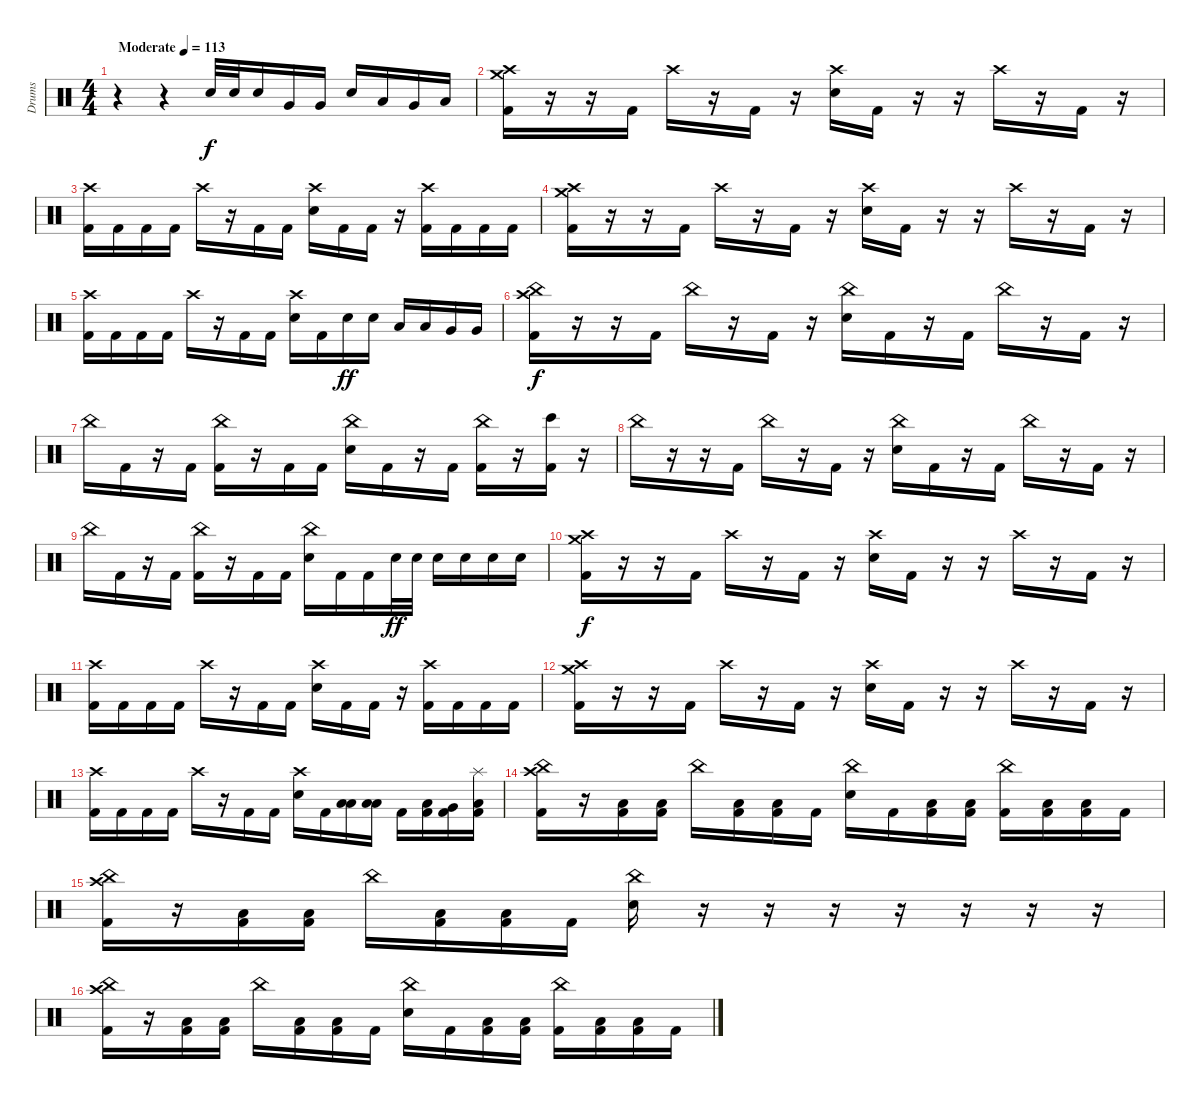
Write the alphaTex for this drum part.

\track ("Drums" "Drums") {instrument percussion}
\staff {score}
\articulation defaults
\ts (4 4)
\tempo (113 "Moderate")
\clef neutral
\ks c
r.4{dy f} r.4 "Snare (hit) 2".32 "Snare (hit) 2".32 "Snare (hit) 2".16 "Very Low Tom (hit)".16 "Very Low Tom (hit)".16 "Snare (hit) 2".16 "Low Tom (hit)".16 "Very Low Tom (hit)".16 "Low Floor Tom (hit)".16 |
("Crash high (hit)" "Crash medium (hit)" "Kick (hit) 2").16 r.16 r.16 "Kick (hit) 2".16 "Crash high (hit)".16 r.16 "Kick (hit) 2".16 r.16 ("Crash high (hit)" "Snare (hit) 2").16 "Kick (hit) 2".16 r.16 r.16 "Crash high (hit)".16 r.16 "Kick (hit) 2".16 r.16 |
("Crash high (hit)" "Kick (hit) 2").16 "Kick (hit) 2".16 "Kick (hit) 2".16 "Kick (hit) 2".16 "Crash high (hit)".16 r.16 "Kick (hit) 2".16 "Kick (hit) 2".16 ("Crash high (hit)" "Snare (hit) 2").16 "Kick (hit) 2".16 "Kick (hit) 2".16 r.16 ("Crash high (hit)" "Kick (hit) 2").16 "Kick (hit) 2".16 "Kick (hit) 2".16 "Kick (hit) 2".16 |
("Crash high (hit)" "Crash medium (hit)" "Kick (hit) 2").16 r.16 r.16 "Kick (hit) 2".16 "Crash high (hit)".16 r.16 "Kick (hit) 2".16 r.16 ("Crash high (hit)" "Snare (hit) 2").16 "Kick (hit) 2".16 r.16 r.16 "Crash high (hit)".16 r.16 "Kick (hit) 2".16 r.16 |
("Crash high (hit)" "Kick (hit) 2").16 "Kick (hit) 2".16 "Kick (hit) 2".16 "Kick (hit) 2".16 "Crash high (hit)".16 r.16 "Kick (hit) 2".16 "Kick (hit) 2".16 ("Crash high (hit)" "Snare (hit) 2").16 "Kick (hit) 2".16 "Snare (hit) 2".16{dy ff} "Snare (hit) 2".16 "Low Tom (hit)".16 "Low Tom (hit)".16 "Very Low Tom (hit)".16 "Very Low Tom (hit)".16 |
("China (hit)" "Crash high (hit)" "Kick (hit) 2").16{dy f} r.16 r.16 "Kick (hit) 2".16 "China (hit)".16 r.16 "Kick (hit) 2".16 r.16 ("China (hit)" "Snare (hit) 2").16 "Kick (hit) 2".16 r.16 "Kick (hit) 2".16 "China (hit)".16 r.16 "Kick (hit) 2".16 r.16 |
"China (hit)".16 "Kick (hit) 2".16 r.16 "Kick (hit) 2".16 ("China (hit)" "Kick (hit) 2").16 r.16 "Kick (hit) 2".16 "Kick (hit) 2".16 ("China (hit)" "Snare (hit) 2").16 "Kick (hit) 2".16 r.16 "Kick (hit) 2".16 ("China (hit)" "Kick (hit) 2").16 r.16 ("Bongo High (hit)" "Kick (hit) 2").16 r.16 |
"China (hit)".16 r.16 r.16 "Kick (hit) 2".16 "China (hit)".16 r.16 "Kick (hit) 2".16 r.16 ("China (hit)" "Snare (hit) 2").16 "Kick (hit) 2".16 r.16 "Kick (hit) 2".16 "China (hit)".16 r.16 "Kick (hit) 2".16 r.16 |
"China (hit)".16 "Kick (hit) 2".16 r.16 "Kick (hit) 2".16 ("China (hit)" "Kick (hit) 2").16 r.16 "Kick (hit) 2".16 "Kick (hit) 2".16 ("China (hit)" "Snare (hit) 2").16 "Kick (hit) 2".16 "Kick (hit) 2".16 "Snare (hit) 2".32{dy ff} "Snare (hit) 2".32 "Snare (hit) 2".16 "Snare (hit) 2".16 "Snare (hit) 2".16 "Snare (hit) 2".16 |
("Crash high (hit)" "Crash medium (hit)" "Kick (hit) 2").16{dy f} r.16 r.16 "Kick (hit) 2".16 "Crash high (hit)".16 r.16 "Kick (hit) 2".16 r.16 ("Crash high (hit)" "Snare (hit) 2").16 "Kick (hit) 2".16 r.16 r.16 "Crash high (hit)".16 r.16 "Kick (hit) 2".16 r.16 |
("Crash high (hit)" "Kick (hit) 2").16 "Kick (hit) 2".16 "Kick (hit) 2".16 "Kick (hit) 2".16 "Crash high (hit)".16 r.16 "Kick (hit) 2".16 "Kick (hit) 2".16 ("Crash high (hit)" "Snare (hit) 2").16 "Kick (hit) 2".16 "Kick (hit) 2".16 r.16 ("Crash high (hit)" "Kick (hit) 2").16 "Kick (hit) 2".16 "Kick (hit) 2".16 "Kick (hit) 2".16 |
("Crash high (hit)" "Crash medium (hit)" "Kick (hit) 2").16 r.16 r.16 "Kick (hit) 2".16 "Crash high (hit)".16 r.16 "Kick (hit) 2".16 r.16 ("Crash high (hit)" "Snare (hit) 2").16 "Kick (hit) 2".16 r.16 r.16 "Crash high (hit)".16 r.16 "Kick (hit) 2".16 r.16 |
("Crash high (hit)" "Kick (hit) 2").16 "Kick (hit) 2".16 "Kick (hit) 2".16 "Kick (hit) 2".16 "Crash high (hit)".16 r.16 "Kick (hit) 2".16 "Kick (hit) 2".16 ("Crash high (hit)" "Snare (hit) 2").16 "Kick (hit) 2".16 ("Low Tom (hit)" "Low Floor Tom (hit)").16 ("Low Tom (hit)" "Low Floor Tom (hit)").16 "Kick (hit) 2".16 ("Low Tom (hit)" "Kick (hit) 2").16 ("Very Low Tom (hit)" "Kick (hit) 2").16 ("Splash (hit)" "Low Floor Tom (hit)" "Kick (hit) 2").16 |
("China (hit)" "Crash high (hit)" "Kick (hit) 2").16 r.16 ("Low Floor Tom (hit)" "Kick (hit) 2").16 ("Low Floor Tom (hit)" "Kick (hit) 2").16 "China (hit)".16 ("Low Floor Tom (hit)" "Kick (hit) 2").16 ("Low Floor Tom (hit)" "Kick (hit) 2").16 "Kick (hit) 2".16 ("China (hit)" "Snare (hit) 2").16 "Kick (hit) 2".16 ("Low Floor Tom (hit)" "Kick (hit) 2").16 ("Low Floor Tom (hit)" "Kick (hit) 2").16 ("China (hit)" "Kick (hit) 2").16 ("Low Floor Tom (hit)" "Kick (hit) 2").16 ("Low Floor Tom (hit)" "Kick (hit) 2").16 "Kick (hit) 2".16 |
("China (hit)" "Crash high (hit)" "Kick (hit) 2").16 r.16 ("Low Floor Tom (hit)" "Kick (hit) 2").16 ("Low Floor Tom (hit)" "Kick (hit) 2").16 "China (hit)".16 ("Low Floor Tom (hit)" "Kick (hit) 2").16 ("Low Floor Tom (hit)" "Kick (hit) 2").16 "Kick (hit) 2".16 ("China (hit)" "Snare (hit) 2").16 r.16 r.16 r.16 r.16 r.16 r.16 r.16 |
("China (hit)" "Crash high (hit)" "Kick (hit) 2").16 r.16 ("Low Floor Tom (hit)" "Kick (hit) 2").16 ("Low Floor Tom (hit)" "Kick (hit) 2").16 "China (hit)".16 ("Low Floor Tom (hit)" "Kick (hit) 2").16 ("Low Floor Tom (hit)" "Kick (hit) 2").16 "Kick (hit) 2".16 ("China (hit)" "Snare (hit) 2").16 "Kick (hit) 2".16 ("Low Floor Tom (hit)" "Kick (hit) 2").16 ("Low Floor Tom (hit)" "Kick (hit) 2").16 ("China (hit)" "Kick (hit) 2").16 ("Low Floor Tom (hit)" "Kick (hit) 2").16 ("Low Floor Tom (hit)" "Kick (hit) 2").16 "Kick (hit) 2".16
